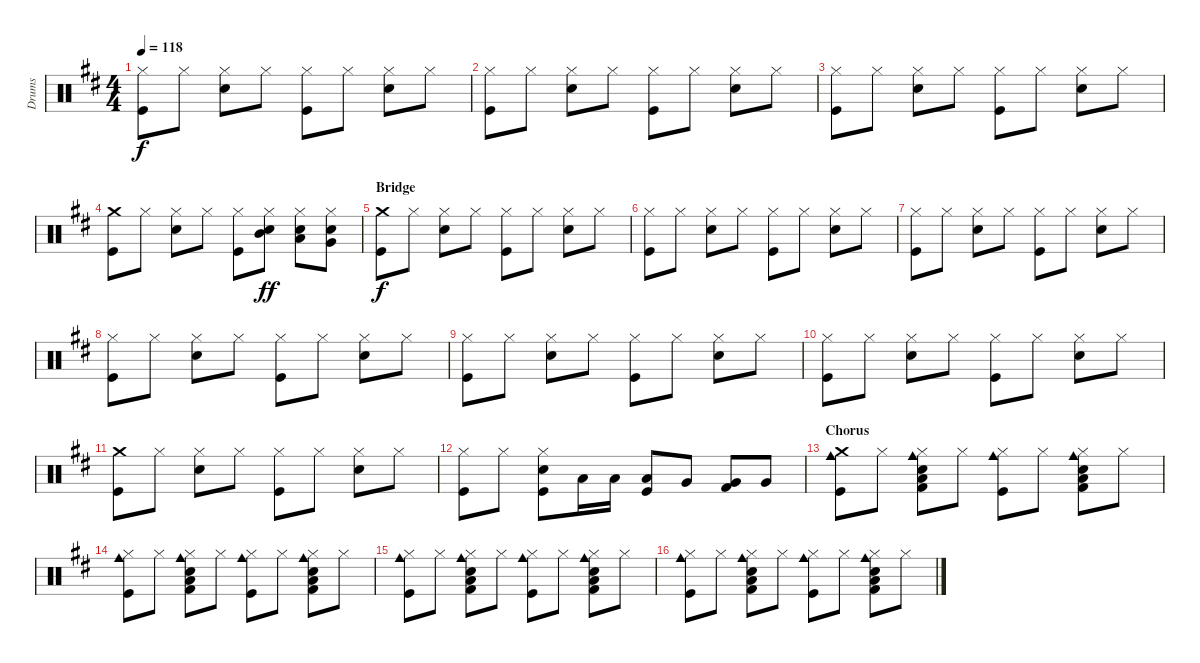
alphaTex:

\track ("Drums" "Drums") {instrument percussion}
\staff {score}
\articulation defaults
\ts (4 4)
\tempo 118
\clef neutral
\ks d
("Hi-Hat (closed)" "Kick (hit)").8{dy f} "Hi-Hat (closed)".8 ("Hi-Hat (closed)" "Electric Snare (hit)").8 "Hi-Hat (closed)".8 ("Hi-Hat (closed)" "Kick (hit)").8 "Hi-Hat (closed)".8 ("Hi-Hat (closed)" "Electric Snare (hit)").8 "Hi-Hat (closed)".8 |
("Hi-Hat (closed)" "Kick (hit)").8 "Hi-Hat (closed)".8 ("Hi-Hat (closed)" "Electric Snare (hit)").8 "Hi-Hat (closed)".8 ("Hi-Hat (closed)" "Kick (hit)").8 "Hi-Hat (closed)".8 ("Hi-Hat (closed)" "Electric Snare (hit)").8 "Hi-Hat (closed)".8 |
("Hi-Hat (closed)" "Kick (hit)").8 "Hi-Hat (closed)".8 ("Hi-Hat (closed)" "Electric Snare (hit)").8 "Hi-Hat (closed)".8 ("Hi-Hat (closed)" "Kick (hit)").8 "Hi-Hat (closed)".8 ("Hi-Hat (closed)" "Electric Snare (hit)").8 "Hi-Hat (closed)".8 |
("Crash medium (hit)" "Kick (hit)").8 "Hi-Hat (closed)".8 ("Hi-Hat (closed)" "Electric Snare (hit)").8 "Hi-Hat (closed)".8 ("Hi-Hat (closed)" "Kick (hit)").8 ("Hi-Hat (closed)" "Electric Snare (hit)" "Mid Tom (hit)").8{dy ff} ("Hi-Hat (closed)" "Electric Snare (hit)" "Low Tom (hit)").8 ("Hi-Hat (closed)" "Electric Snare (hit)" "Very Low Tom (hit)").8 |
\section ("" "Bridge")
("Crash medium (hit)" "Kick (hit)").8{dy f} "Hi-Hat (closed)".8 ("Hi-Hat (closed)" "Electric Snare (hit)").8 "Hi-Hat (closed)".8 ("Hi-Hat (closed)" "Kick (hit)").8 "Hi-Hat (closed)".8 ("Hi-Hat (closed)" "Electric Snare (hit)").8 "Hi-Hat (closed)".8 |
("Hi-Hat (closed)" "Kick (hit)").8 "Hi-Hat (closed)".8 ("Hi-Hat (closed)" "Electric Snare (hit)").8 "Hi-Hat (closed)".8 ("Hi-Hat (closed)" "Kick (hit)").8 "Hi-Hat (closed)".8 ("Hi-Hat (closed)" "Electric Snare (hit)").8 "Hi-Hat (closed)".8 |
("Hi-Hat (closed)" "Kick (hit)").8 "Hi-Hat (closed)".8 ("Hi-Hat (closed)" "Electric Snare (hit)").8 "Hi-Hat (closed)".8 ("Hi-Hat (closed)" "Kick (hit)").8 "Hi-Hat (closed)".8 ("Hi-Hat (closed)" "Electric Snare (hit)").8 "Hi-Hat (closed)".8 |
("Hi-Hat (closed)" "Kick (hit)").8 "Hi-Hat (closed)".8 ("Hi-Hat (closed)" "Electric Snare (hit)").8 "Hi-Hat (closed)".8 ("Hi-Hat (closed)" "Kick (hit)").8 "Hi-Hat (closed)".8 ("Hi-Hat (closed)" "Electric Snare (hit)").8 "Hi-Hat (closed)".8 |
("Hi-Hat (closed)" "Kick (hit)").8 "Hi-Hat (closed)".8 ("Hi-Hat (closed)" "Electric Snare (hit)").8 "Hi-Hat (closed)".8 ("Hi-Hat (closed)" "Kick (hit)").8 "Hi-Hat (closed)".8 ("Hi-Hat (closed)" "Electric Snare (hit)").8 "Hi-Hat (closed)".8 |
("Hi-Hat (closed)" "Kick (hit)").8 "Hi-Hat (closed)".8 ("Hi-Hat (closed)" "Electric Snare (hit)").8 "Hi-Hat (closed)".8 ("Hi-Hat (closed)" "Kick (hit)").8 "Hi-Hat (closed)".8 ("Hi-Hat (closed)" "Electric Snare (hit)").8 "Hi-Hat (closed)".8 |
("Crash medium (hit)" "Kick (hit)").8 "Hi-Hat (closed)".8 ("Hi-Hat (closed)" "Electric Snare (hit)").8 "Hi-Hat (closed)".8 ("Hi-Hat (closed)" "Kick (hit)").8 "Hi-Hat (closed)".8 ("Hi-Hat (closed)" "Electric Snare (hit)").8 "Hi-Hat (closed)".8 |
("Hi-Hat (closed)" "Kick (hit)").8 "Hi-Hat (closed)".8 ("Hi-Hat (closed)" "Electric Snare (hit)" "Kick (hit)").8 "Low Tom (hit)".16 "Low Tom (hit)".16 ("Low Tom (hit)" "Kick (hit)").8 "Very Low Tom (hit)".8 ("Very Low Tom (hit)" "Kick (hit) 2").8 "Very Low Tom (hit)".8 |
\section ("" "Chorus")
("Crash medium (hit)" "Cowbell medium (hit)" "Kick (hit)").8 "Hi-Hat (closed)".8 ("Hi-Hat (closed)" "Electric Snare (hit)" "Low Tom (hit)" "Cowbell medium (hit)" "Kick (hit) 2").8 "Hi-Hat (closed)".8 ("Hi-Hat (closed)" "Cowbell medium (hit)" "Kick (hit)").8 "Hi-Hat (closed)".8 ("Hi-Hat (closed)" "Electric Snare (hit)" "Low Tom (hit)" "Cowbell medium (hit)" "Kick (hit) 2").8 "Hi-Hat (closed)".8 |
("Hi-Hat (closed)" "Cowbell medium (hit)" "Kick (hit)").8 "Hi-Hat (closed)".8 ("Hi-Hat (closed)" "Electric Snare (hit)" "Low Tom (hit)" "Cowbell medium (hit)" "Kick (hit) 2").8 "Hi-Hat (closed)".8 ("Hi-Hat (closed)" "Cowbell medium (hit)" "Kick (hit)").8 "Hi-Hat (closed)".8 ("Hi-Hat (closed)" "Electric Snare (hit)" "Low Tom (hit)" "Cowbell medium (hit)" "Kick (hit) 2").8 "Hi-Hat (closed)".8 |
("Hi-Hat (closed)" "Cowbell medium (hit)" "Kick (hit)").8 "Hi-Hat (closed)".8 ("Hi-Hat (closed)" "Electric Snare (hit)" "Low Tom (hit)" "Cowbell medium (hit)" "Kick (hit) 2").8 "Hi-Hat (closed)".8 ("Hi-Hat (closed)" "Cowbell medium (hit)" "Kick (hit)").8 "Hi-Hat (closed)".8 ("Hi-Hat (closed)" "Electric Snare (hit)" "Low Tom (hit)" "Cowbell medium (hit)" "Kick (hit) 2").8 "Hi-Hat (closed)".8 |
("Hi-Hat (closed)" "Cowbell medium (hit)" "Kick (hit)").8 "Hi-Hat (closed)".8 ("Hi-Hat (closed)" "Electric Snare (hit)" "Low Tom (hit)" "Cowbell medium (hit)" "Kick (hit) 2").8 "Hi-Hat (closed)".8 ("Hi-Hat (closed)" "Cowbell medium (hit)" "Kick (hit)").8 "Hi-Hat (closed)".8 ("Hi-Hat (closed)" "Electric Snare (hit)" "Low Tom (hit)" "Cowbell medium (hit)" "Kick (hit) 2").8 "Hi-Hat (closed)".8
